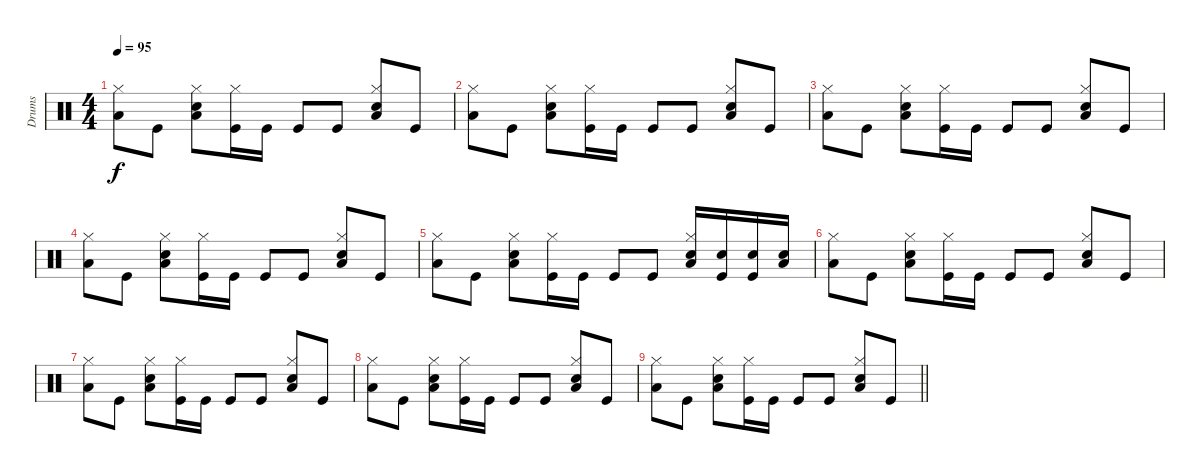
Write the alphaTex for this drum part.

\track ("Drums" "Drums") {instrument percussion}
\staff {score}
\articulation defaults
\ts (4 4)
\tempo 95
\clef neutral
\ks c
("Low Floor Tom (hit)" "Hi-Hat (closed)").8{dy f} "Kick (hit)".8 ("Low Floor Tom (hit)" "Snare (hit) 2" "Hi-Hat (closed)").8 ("Kick (hit)" "Hi-Hat (closed)").16 "Kick (hit)".16 "Kick (hit)".8 "Kick (hit)".8 ("Low Floor Tom (hit)" "Snare (hit) 2" "Hi-Hat (closed)").8 "Kick (hit)".8 |
("Low Floor Tom (hit)" "Hi-Hat (closed)").8 "Kick (hit)".8 ("Low Floor Tom (hit)" "Snare (hit) 2" "Hi-Hat (closed)").8 ("Kick (hit)" "Hi-Hat (closed)").16 "Kick (hit)".16 "Kick (hit)".8 "Kick (hit)".8 ("Low Floor Tom (hit)" "Snare (hit) 2" "Hi-Hat (closed)").8 "Kick (hit)".8 |
("Low Floor Tom (hit)" "Hi-Hat (closed)").8 "Kick (hit)".8 ("Low Floor Tom (hit)" "Snare (hit) 2" "Hi-Hat (closed)").8 ("Kick (hit)" "Hi-Hat (closed)").16 "Kick (hit)".16 "Kick (hit)".8 "Kick (hit)".8 ("Low Floor Tom (hit)" "Snare (hit) 2" "Hi-Hat (closed)").8 "Kick (hit)".8 |
("Low Floor Tom (hit)" "Hi-Hat (closed)").8 "Kick (hit)".8 ("Low Floor Tom (hit)" "Snare (hit) 2" "Hi-Hat (closed)").8 ("Kick (hit)" "Hi-Hat (closed)").16 "Kick (hit)".16 "Kick (hit)".8 "Kick (hit)".8 ("Low Floor Tom (hit)" "Snare (hit) 2" "Hi-Hat (closed)").8 "Kick (hit)".8 |
("Low Floor Tom (hit)" "Hi-Hat (closed)").8 "Kick (hit)".8 ("Low Floor Tom (hit)" "Snare (hit) 2" "Hi-Hat (closed)").8 ("Kick (hit)" "Hi-Hat (closed)").16 "Kick (hit)".16 "Kick (hit)".8 "Kick (hit)".8 ("Low Floor Tom (hit)" "Snare (hit) 2" "Hi-Hat (closed)").16 ("Kick (hit)" "Snare (hit) 2").16 ("Kick (hit)" "Snare (hit) 2").16 ("Low Floor Tom (hit)" "Snare (hit) 2").16 |
("Low Floor Tom (hit)" "Hi-Hat (closed)").8 "Kick (hit)".8 ("Low Floor Tom (hit)" "Snare (hit) 2" "Hi-Hat (closed)").8 ("Kick (hit)" "Hi-Hat (closed)").16 "Kick (hit)".16 "Kick (hit)".8 "Kick (hit)".8 ("Low Floor Tom (hit)" "Snare (hit) 2" "Hi-Hat (closed)").8 "Kick (hit)".8 |
("Low Floor Tom (hit)" "Hi-Hat (closed)").8 "Kick (hit)".8 ("Low Floor Tom (hit)" "Snare (hit) 2" "Hi-Hat (closed)").8 ("Kick (hit)" "Hi-Hat (closed)").16 "Kick (hit)".16 "Kick (hit)".8 "Kick (hit)".8 ("Low Floor Tom (hit)" "Snare (hit) 2" "Hi-Hat (closed)").8 "Kick (hit)".8 |
("Low Floor Tom (hit)" "Hi-Hat (closed)").8 "Kick (hit)".8 ("Low Floor Tom (hit)" "Snare (hit) 2" "Hi-Hat (closed)").8 ("Kick (hit)" "Hi-Hat (closed)").16 "Kick (hit)".16 "Kick (hit)".8 "Kick (hit)".8 ("Low Floor Tom (hit)" "Snare (hit) 2" "Hi-Hat (closed)").8 "Kick (hit)".8 |
\barLineRight lightlight
("Low Floor Tom (hit)" "Hi-Hat (closed)").8 "Kick (hit)".8 ("Low Floor Tom (hit)" "Snare (hit) 2" "Hi-Hat (closed)").8 ("Kick (hit)" "Hi-Hat (closed)").16 "Kick (hit)".16 "Kick (hit)".8 "Kick (hit)".8 ("Low Floor Tom (hit)" "Snare (hit) 2" "Hi-Hat (closed)").8 "Kick (hit)".8
